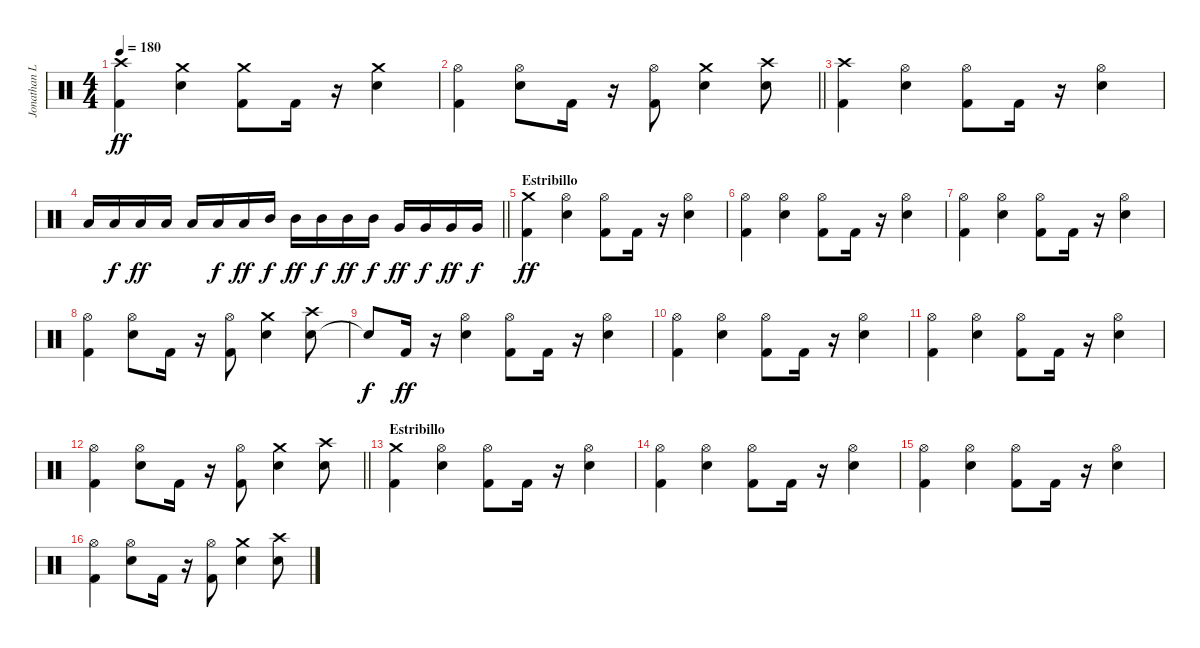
\track ("Jonathan Lòpez" "Jonathan L") {instrument percussion}
\staff {score}
\articulation defaults
\ts (4 4)
\tempo 180
\clef neutral
\ks c
("Kick (hit) 2" "Crash high (hit)").4{dy ff} ("Electric Snare (hit)" "Crash medium (hit)").4 ("Kick (hit) 2" "Crash medium (hit)").8 "Kick (hit) 2".16 r.16 ("Electric Snare (hit)" "Crash medium (hit)").4 |
\barLineRight lightlight
("Kick (hit) 2" "Hi-Hat (open)").4 ("Electric Snare (hit)" "Hi-Hat (open)").8 "Kick (hit) 2".16 r.16 ("Kick (hit) 2" "Hi-Hat (open)").8 ("Electric Snare (hit)" "Crash medium (hit)").4 ("Electric Snare (hit)" "Crash high (hit)").8 |
("Kick (hit) 2" "Crash high (hit)").4 ("Electric Snare (hit)" "Hi-Hat (open)").4 ("Kick (hit) 2" "Hi-Hat (open)").8 "Kick (hit) 2".16 r.16 ("Electric Snare (hit)" "Hi-Hat (open)").4 |
\barLineRight lightlight "Low Tom (hit)".16 "Low Tom (hit)".16{dy f} "Low Tom (hit)".16{dy ff} "Low Tom (hit)".16 "Low Tom (hit)".16 "Low Tom (hit)".16{dy f} "Low Tom (hit)".16{dy ff} "Mid Tom (hit)".16{dy f} "Mid Tom (hit)".16{dy ff} "Mid Tom (hit)".16{dy f} "Mid Tom (hit)".16{dy ff} "Mid Tom (hit)".16{dy f} "Very Low Tom (hit)".16{dy ff} "Very Low Tom (hit)".16{dy f} "Very Low Tom (hit)".16{dy ff} "Very Low Tom (hit)".16{dy f}
|
\section ("" "Estribillo")
("Kick (hit) 2" "Crash medium (hit)").4{dy ff} ("Electric Snare (hit)" "Hi-Hat (open)").4 ("Kick (hit) 2" "Hi-Hat (open)").8 "Kick (hit) 2".16 r.16 ("Electric Snare (hit)" "Hi-Hat (open)").4 |
("Hi-Hat (open)" "Kick (hit) 2").4 ("Hi-Hat (open)" "Electric Snare (hit)").4 ("Hi-Hat (open)" "Kick (hit) 2").8 "Kick (hit) 2".16 r.16 ("Hi-Hat (open)" "Electric Snare (hit)").4 |
("Kick (hit) 2" "Hi-Hat (open)").4 ("Electric Snare (hit)" "Hi-Hat (open)").4 ("Kick (hit) 2" "Hi-Hat (open)").8 "Kick (hit) 2".16 r.16 ("Electric Snare (hit)" "Hi-Hat (open)").4 |
("Kick (hit) 2" "Hi-Hat (open)").4 ("Electric Snare (hit)" "Hi-Hat (open)").8 "Kick (hit) 2".16 r.16 ("Kick (hit) 2" "Hi-Hat (open)").8 ("Electric Snare (hit)" "Crash medium (hit)").4 ("Electric Snare (hit)" "Crash high (hit)").8 |
"Snare (hit)"{t}.8{dy f} "Kick (hit) 2".16{dy ff} r.16 ("Electric Snare (hit)" "Hi-Hat (open)").4 ("Kick (hit) 2" "Hi-Hat (open)").8 "Kick (hit) 2".16 r.16 ("Electric Snare (hit)" "Hi-Hat (open)").4 |
("Kick (hit) 2" "Hi-Hat (open)").4 ("Electric Snare (hit)" "Hi-Hat (open)").4 ("Kick (hit) 2" "Hi-Hat (open)").8 "Kick (hit) 2".16 r.16 ("Electric Snare (hit)" "Hi-Hat (open)").4 |
("Kick (hit) 2" "Hi-Hat (open)").4 ("Electric Snare (hit)" "Hi-Hat (open)").4 ("Kick (hit) 2" "Hi-Hat (open)").8 "Kick (hit) 2".16 r.16 ("Electric Snare (hit)" "Hi-Hat (open)").4 |
\barLineRight lightlight
("Kick (hit) 2" "Hi-Hat (open)").4 ("Electric Snare (hit)" "Hi-Hat (open)").8 "Kick (hit) 2".16 r.16 ("Kick (hit) 2" "Hi-Hat (open)").8 ("Electric Snare (hit)" "Crash medium (hit)").4 ("Electric Snare (hit)" "Crash high (hit)").8 |
\section ("" "Estribillo")
("Kick (hit) 2" "Crash medium (hit)").4 ("Electric Snare (hit)" "Hi-Hat (open)").4 ("Kick (hit) 2" "Hi-Hat (open)").8 "Kick (hit) 2".16 r.16 ("Electric Snare (hit)" "Hi-Hat (open)").4 |
("Hi-Hat (open)" "Kick (hit) 2").4 ("Hi-Hat (open)" "Electric Snare (hit)").4 ("Hi-Hat (open)" "Kick (hit) 2").8 "Kick (hit) 2".16 r.16 ("Hi-Hat (open)" "Electric Snare (hit)").4 |
("Kick (hit) 2" "Hi-Hat (open)").4 ("Electric Snare (hit)" "Hi-Hat (open)").4 ("Kick (hit) 2" "Hi-Hat (open)").8 "Kick (hit) 2".16 r.16 ("Electric Snare (hit)" "Hi-Hat (open)").4 |
("Kick (hit) 2" "Hi-Hat (open)").4 ("Electric Snare (hit)" "Hi-Hat (open)").8 "Kick (hit) 2".16 r.16 ("Kick (hit) 2" "Hi-Hat (open)").8 ("Electric Snare (hit)" "Crash medium (hit)").4 ("Electric Snare (hit)" "Crash high (hit)").8
